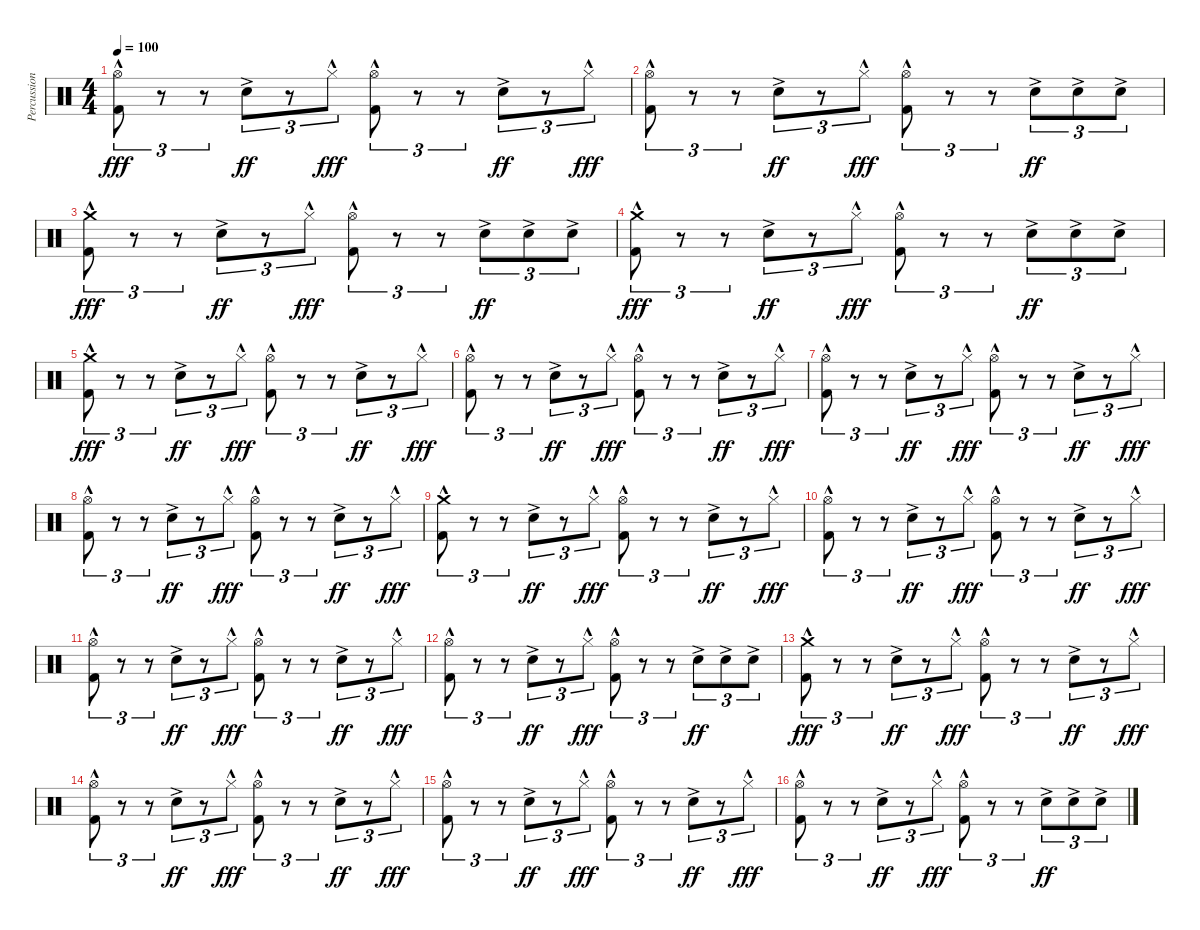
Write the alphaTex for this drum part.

\track ("Percussion" "Percussion") {instrument percussion}
\staff {score}
\articulation defaults
\ts (4 4)
\tempo 100
\clef neutral
\ks c
("Hi-Hat (open)"{hac} "Kick (hit) 2"{hac}).8{tu (3 2) dy fff} r.8{tu (3 2)} r.8{tu (3 2)} "Snare (hit) 2"{ac}.8{tu (3 2) dy ff} r.8{tu (3 2)} "Hi-Hat (closed)"{hac}.8{tu (3 2) dy fff} ("Hi-Hat (open)"{hac} "Kick (hit) 2"{hac}).8{tu (3 2)} r.8{tu (3 2)} r.8{tu (3 2)} "Snare (hit) 2"{ac}.8{tu (3 2) dy ff} r.8{tu (3 2)} "Hi-Hat (closed)"{hac}.8{tu (3 2) dy fff} |
("Hi-Hat (open)"{hac} "Kick (hit) 2"{hac}).8{tu (3 2)} r.8{tu (3 2)} r.8{tu (3 2)} "Snare (hit) 2"{ac}.8{tu (3 2) dy ff} r.8{tu (3 2)} "Hi-Hat (closed)"{hac}.8{tu (3 2) dy fff} ("Hi-Hat (open)"{hac} "Kick (hit) 2"{hac}).8{tu (3 2)} r.8{tu (3 2)} r.8{tu (3 2)} "Snare (hit) 2"{ac}.8{tu (3 2) dy ff} "Snare (hit) 2"{ac}.8{tu (3 2)} "Snare (hit) 2"{ac}.8{tu (3 2)} |
("Crash medium (hit)"{hac} "Kick (hit) 2"{hac}).8{tu (3 2) dy fff} r.8{tu (3 2)} r.8{tu (3 2)} "Snare (hit) 2"{ac}.8{tu (3 2) dy ff} r.8{tu (3 2)} "Hi-Hat (closed)"{hac}.8{tu (3 2) dy fff} ("Hi-Hat (open)"{hac} "Kick (hit) 2"{hac}).8{tu (3 2)} r.8{tu (3 2)} r.8{tu (3 2)} "Snare (hit) 2"{ac}.8{tu (3 2) dy ff} "Snare (hit) 2"{ac}.8{tu (3 2)} "Snare (hit) 2"{ac}.8{tu (3 2)} |
("Crash medium (hit)"{hac} "Kick (hit) 2"{hac}).8{tu (3 2) dy fff} r.8{tu (3 2)} r.8{tu (3 2)} "Snare (hit) 2"{ac}.8{tu (3 2) dy ff} r.8{tu (3 2)} "Hi-Hat (closed)"{hac}.8{tu (3 2) dy fff} ("Hi-Hat (open)"{hac} "Kick (hit) 2"{hac}).8{tu (3 2)} r.8{tu (3 2)} r.8{tu (3 2)} "Snare (hit) 2"{ac}.8{tu (3 2) dy ff} "Snare (hit) 2"{ac}.8{tu (3 2)} "Snare (hit) 2"{ac}.8{tu (3 2)} |
("Crash medium (hit)"{hac} "Kick (hit) 2"{hac}).8{tu (3 2) dy fff} r.8{tu (3 2)} r.8{tu (3 2)} "Snare (hit) 2"{ac}.8{tu (3 2) dy ff} r.8{tu (3 2)} "Hi-Hat (closed)"{hac}.8{tu (3 2) dy fff} ("Hi-Hat (open)"{hac} "Kick (hit) 2"{hac}).8{tu (3 2)} r.8{tu (3 2)} r.8{tu (3 2)} "Snare (hit) 2"{ac}.8{tu (3 2) dy ff} r.8{tu (3 2)} "Hi-Hat (closed)"{hac}.8{tu (3 2) dy fff} |
("Hi-Hat (open)"{hac} "Kick (hit) 2"{hac}).8{tu (3 2)} r.8{tu (3 2)} r.8{tu (3 2)} "Snare (hit) 2"{ac}.8{tu (3 2) dy ff} r.8{tu (3 2)} "Hi-Hat (closed)"{hac}.8{tu (3 2) dy fff} ("Hi-Hat (open)"{hac} "Kick (hit) 2"{hac}).8{tu (3 2)} r.8{tu (3 2)} r.8{tu (3 2)} "Snare (hit) 2"{ac}.8{tu (3 2) dy ff} r.8{tu (3 2)} "Hi-Hat (closed)"{hac}.8{tu (3 2) dy fff} |
("Hi-Hat (open)"{hac} "Kick (hit) 2"{hac}).8{tu (3 2)} r.8{tu (3 2)} r.8{tu (3 2)} "Snare (hit) 2"{ac}.8{tu (3 2) dy ff} r.8{tu (3 2)} "Hi-Hat (closed)"{hac}.8{tu (3 2) dy fff} ("Hi-Hat (open)"{hac} "Kick (hit) 2"{hac}).8{tu (3 2)} r.8{tu (3 2)} r.8{tu (3 2)} "Snare (hit) 2"{ac}.8{tu (3 2) dy ff} r.8{tu (3 2)} "Hi-Hat (closed)"{hac}.8{tu (3 2) dy fff} |
("Hi-Hat (open)"{hac} "Kick (hit) 2"{hac}).8{tu (3 2)} r.8{tu (3 2)} r.8{tu (3 2)} "Snare (hit) 2"{ac}.8{tu (3 2) dy ff} r.8{tu (3 2)} "Hi-Hat (closed)"{hac}.8{tu (3 2) dy fff} ("Hi-Hat (open)"{hac} "Kick (hit) 2"{hac}).8{tu (3 2)} r.8{tu (3 2)} r.8{tu (3 2)} "Snare (hit) 2"{ac}.8{tu (3 2) dy ff} r.8{tu (3 2)} "Hi-Hat (closed)"{hac}.8{tu (3 2) dy fff} |
("Crash medium (hit)"{hac} "Kick (hit) 2"{hac}).8{tu (3 2)} r.8{tu (3 2)} r.8{tu (3 2)} "Snare (hit) 2"{ac}.8{tu (3 2) dy ff} r.8{tu (3 2)} "Hi-Hat (closed)"{hac}.8{tu (3 2) dy fff} ("Hi-Hat (open)"{hac} "Kick (hit) 2"{hac}).8{tu (3 2)} r.8{tu (3 2)} r.8{tu (3 2)} "Snare (hit) 2"{ac}.8{tu (3 2) dy ff} r.8{tu (3 2)} "Hi-Hat (closed)"{hac}.8{tu (3 2) dy fff} |
("Hi-Hat (open)"{hac} "Kick (hit) 2"{hac}).8{tu (3 2)} r.8{tu (3 2)} r.8{tu (3 2)} "Snare (hit) 2"{ac}.8{tu (3 2) dy ff} r.8{tu (3 2)} "Hi-Hat (closed)"{hac}.8{tu (3 2) dy fff} ("Hi-Hat (open)"{hac} "Kick (hit) 2"{hac}).8{tu (3 2)} r.8{tu (3 2)} r.8{tu (3 2)} "Snare (hit) 2"{ac}.8{tu (3 2) dy ff} r.8{tu (3 2)} "Hi-Hat (closed)"{hac}.8{tu (3 2) dy fff} |
("Hi-Hat (open)"{hac} "Kick (hit) 2"{hac}).8{tu (3 2)} r.8{tu (3 2)} r.8{tu (3 2)} "Snare (hit) 2"{ac}.8{tu (3 2) dy ff} r.8{tu (3 2)} "Hi-Hat (closed)"{hac}.8{tu (3 2) dy fff} ("Hi-Hat (open)"{hac} "Kick (hit) 2"{hac}).8{tu (3 2)} r.8{tu (3 2)} r.8{tu (3 2)} "Snare (hit) 2"{ac}.8{tu (3 2) dy ff} r.8{tu (3 2)} "Hi-Hat (closed)"{hac}.8{tu (3 2) dy fff} |
("Hi-Hat (open)"{hac} "Kick (hit) 2"{hac}).8{tu (3 2)} r.8{tu (3 2)} r.8{tu (3 2)} "Snare (hit) 2"{ac}.8{tu (3 2) dy ff} r.8{tu (3 2)} "Hi-Hat (closed)"{hac}.8{tu (3 2) dy fff} ("Hi-Hat (open)"{hac} "Kick (hit) 2"{hac}).8{tu (3 2)} r.8{tu (3 2)} r.8{tu (3 2)} "Snare (hit) 2"{ac}.8{tu (3 2) dy ff} "Snare (hit) 2"{ac}.8{tu (3 2)} "Snare (hit) 2"{ac}.8{tu (3 2)} |
("Crash medium (hit)"{hac} "Kick (hit) 2"{hac}).8{tu (3 2) dy fff} r.8{tu (3 2)} r.8{tu (3 2)} "Snare (hit) 2"{ac}.8{tu (3 2) dy ff} r.8{tu (3 2)} "Hi-Hat (closed)"{hac}.8{tu (3 2) dy fff} ("Hi-Hat (open)"{hac} "Kick (hit) 2"{hac}).8{tu (3 2)} r.8{tu (3 2)} r.8{tu (3 2)} "Snare (hit) 2"{ac}.8{tu (3 2) dy ff} r.8{tu (3 2)} "Hi-Hat (closed)"{hac}.8{tu (3 2) dy fff} |
("Hi-Hat (open)"{hac} "Kick (hit) 2"{hac}).8{tu (3 2)} r.8{tu (3 2)} r.8{tu (3 2)} "Snare (hit) 2"{ac}.8{tu (3 2) dy ff} r.8{tu (3 2)} "Hi-Hat (closed)"{hac}.8{tu (3 2) dy fff} ("Hi-Hat (open)"{hac} "Kick (hit) 2"{hac}).8{tu (3 2)} r.8{tu (3 2)} r.8{tu (3 2)} "Snare (hit) 2"{ac}.8{tu (3 2) dy ff} r.8{tu (3 2)} "Hi-Hat (closed)"{hac}.8{tu (3 2) dy fff} |
("Hi-Hat (open)"{hac} "Kick (hit) 2"{hac}).8{tu (3 2)} r.8{tu (3 2)} r.8{tu (3 2)} "Snare (hit) 2"{ac}.8{tu (3 2) dy ff} r.8{tu (3 2)} "Hi-Hat (closed)"{hac}.8{tu (3 2) dy fff} ("Hi-Hat (open)"{hac} "Kick (hit) 2"{hac}).8{tu (3 2)} r.8{tu (3 2)} r.8{tu (3 2)} "Snare (hit) 2"{ac}.8{tu (3 2) dy ff} r.8{tu (3 2)} "Hi-Hat (closed)"{hac}.8{tu (3 2) dy fff} |
("Hi-Hat (open)"{hac} "Kick (hit) 2"{hac}).8{tu (3 2)} r.8{tu (3 2)} r.8{tu (3 2)} "Snare (hit) 2"{ac}.8{tu (3 2) dy ff} r.8{tu (3 2)} "Hi-Hat (closed)"{hac}.8{tu (3 2) dy fff} ("Hi-Hat (open)"{hac} "Kick (hit) 2"{hac}).8{tu (3 2)} r.8{tu (3 2)} r.8{tu (3 2)} "Snare (hit) 2"{ac}.8{tu (3 2) dy ff} "Snare (hit) 2"{ac}.8{tu (3 2)} "Snare (hit) 2"{ac}.8{tu (3 2)}
